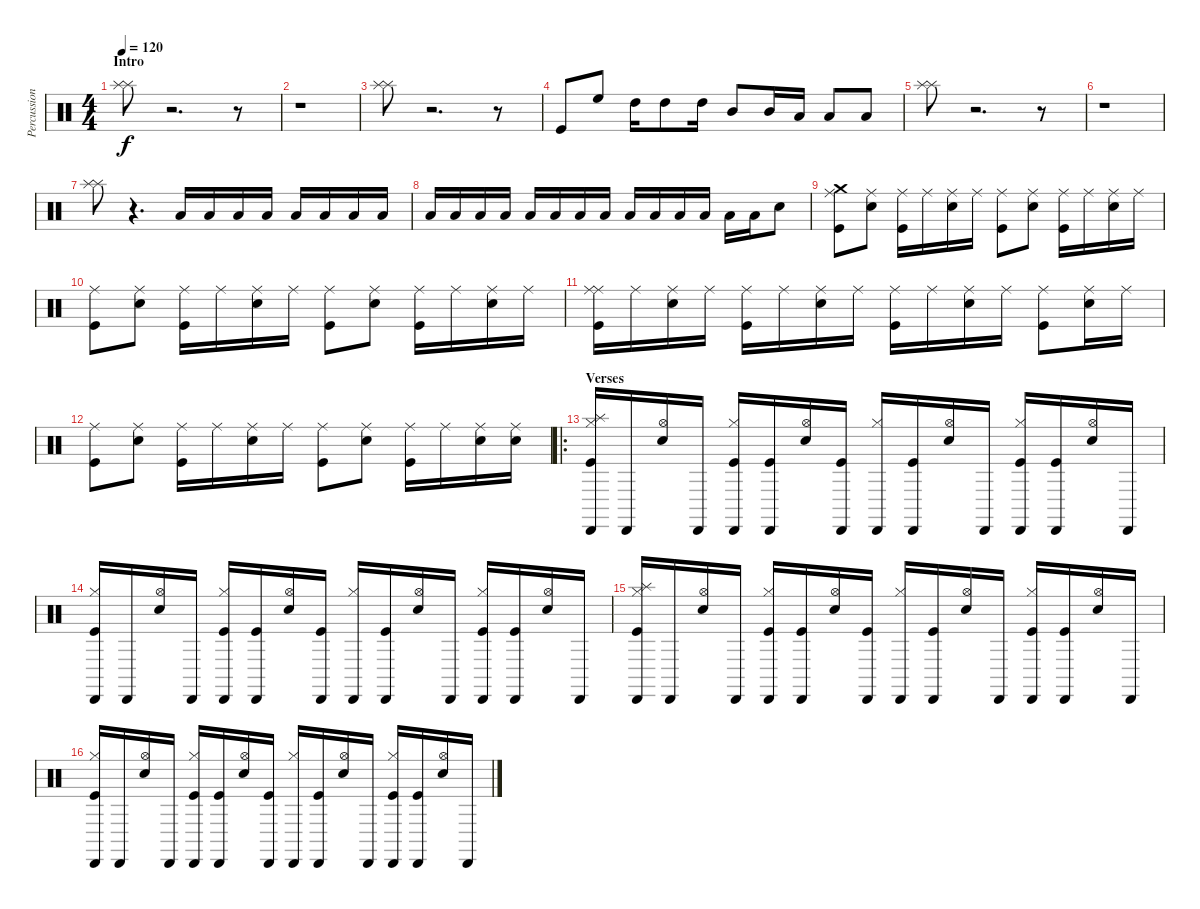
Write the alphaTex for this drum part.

\track ("Percussion" "Percussion") {instrument percussion}
\staff {score}
\articulation defaults
\ts (4 4)
\section ("" "Intro")
\tempo 120
\clef neutral
\ks c
("Splash (hit)" "Splash (hit)").8{dy f} r.2{d} r.8 |
r.1 |
("Splash (hit)" "Splash (hit)").8 r.2{d} r.8 |
"Kick (hit)".8 "High Floor Tom (hit)".8 "High Tom (hit)".16 "High Tom (hit)".8 "High Tom (hit)".16 "Mid Tom (hit)".8 "Mid Tom (hit)".16 "Low Tom (hit)".16 "Low Tom (hit)".8 "Low Tom (hit)".8 |
("Splash (hit)" "Splash (hit)").8 r.2{d} r.8 |
r.1 |
("Splash (hit)" "Splash (hit)").8 r.4{d} "Low Tom (hit)".16{volume 7} "Low Tom (hit)".16 "Low Tom (hit)".16 "Low Tom (hit)".16 "Low Tom (hit)".16 "Low Tom (hit)".16 "Low Tom (hit)".16 "Low Tom (hit)".16{volume 7} |
"Low Tom (hit)".16 "Low Tom (hit)".16{volume 7} "Low Tom (hit)".16 "Low Tom (hit)".16 "Low Tom (hit)".16{volume 8} "Low Tom (hit)".16{volume 9} "Low Tom (hit)".16 "Low Tom (hit)".16{volume 9} "Low Tom (hit)".16 "Low Tom (hit)".16{volume 10} "Low Tom (hit)".16 "Low Tom (hit)".16{volume 11} "Low Tom (hit)".16{volume 12} "Low Tom (hit)".16 "Snare (hit) 2".8{volume 13} |
("Kick (hit)" "Crash medium (hit)" "Ride (middle)").8 ("Snare (hit) 2" "Ride (middle)").8 ("Kick (hit)" "Ride (middle)").16 "Ride (middle)".16 ("Snare (hit) 2" "Ride (middle)").16 "Ride (middle)".16 ("Kick (hit)" "Ride (middle)").8 ("Snare (hit) 2" "Ride (middle)").8 ("Kick (hit)" "Ride (middle)").16 "Ride (middle)".16 ("Snare (hit) 2" "Ride (middle)").16 "Ride (middle)".16 |
("Kick (hit)" "Ride (middle)").8 ("Snare (hit) 2" "Ride (middle)").8 ("Kick (hit)" "Ride (middle)").16 "Ride (middle)".16 ("Snare (hit) 2" "Ride (middle)").16 "Ride (middle)".16 ("Kick (hit)" "Ride (middle)").8 ("Snare (hit) 2" "Ride (middle)").8 ("Kick (hit)" "Ride (middle)").16 "Ride (middle)".16 ("Snare (hit) 2" "Ride (middle)").16 "Ride (middle)".16 |
("Kick (hit)" "Ride (middle)" "Ride (middle)").16 "Ride (middle)".16 ("Snare (hit) 2" "Ride (middle)").16 "Ride (middle)".16 ("Kick (hit)" "Ride (middle)").16 "Ride (middle)".16 ("Snare (hit) 2" "Ride (middle)").16 "Ride (middle)".16 ("Kick (hit)" "Ride (middle)").16 "Ride (middle)".16 ("Snare (hit) 2" "Ride (middle)").16 "Ride (middle)".16 ("Kick (hit)" "Ride (middle)").8 ("Snare (hit) 2" "Ride (middle)").16 "Ride (middle)".16 |
("Kick (hit)" "Ride (middle)").8 ("Snare (hit) 2" "Ride (middle)").8 ("Kick (hit)" "Ride (middle)").16 "Ride (middle)".16 ("Snare (hit) 2" "Ride (middle)").16 "Ride (middle)".16 ("Kick (hit)" "Ride (middle)").8 ("Snare (hit) 2" "Ride (middle)").8 ("Kick (hit)" "Ride (middle)").16 "Ride (middle)".16 ("Snare (hit) 2" "Ride (middle)").16 ("Snare (hit) 2" "Ride (middle)").16 |
\ro
\section ("" "Verses")
("Kick (hit)" "Cabasa (hit)" "Splash (hit)" "Hi-Hat (closed)").16 "Cabasa (hit)".16 ("Hi-Hat (open)" "Snare (hit) 2").16 "Cabasa (hit)".16 ("Kick (hit)" "Cabasa (hit)" "Hi-Hat (closed)").16 ("Kick (hit)" "Cabasa (hit)").16 ("Hi-Hat (open)" "Snare (hit) 2").16 ("Kick (hit)" "Cabasa (hit)").16 ("Cabasa (hit)" "Hi-Hat (closed)").16 ("Kick (hit)" "Cabasa (hit)").16 ("Hi-Hat (open)" "Snare (hit) 2").16 "Cabasa (hit)".16 ("Kick (hit)" "Cabasa (hit)" "Hi-Hat (closed)").16 ("Kick (hit)" "Cabasa (hit)").16 ("Hi-Hat (open)" "Snare (hit) 2").16 "Cabasa (hit)".16 |
("Kick (hit)" "Cabasa (hit)" "Hi-Hat (closed)").16 "Cabasa (hit)".16 ("Hi-Hat (open)" "Snare (hit) 2").16 "Cabasa (hit)".16 ("Kick (hit)" "Cabasa (hit)" "Hi-Hat (closed)").16 ("Kick (hit)" "Cabasa (hit)").16 ("Hi-Hat (open)" "Snare (hit) 2").16 ("Kick (hit)" "Cabasa (hit)").16 ("Cabasa (hit)" "Hi-Hat (closed)").16 ("Kick (hit)" "Cabasa (hit)").16 ("Hi-Hat (open)" "Snare (hit) 2").16 "Cabasa (hit)".16 ("Kick (hit)" "Cabasa (hit)" "Hi-Hat (closed)").16 ("Kick (hit)" "Cabasa (hit)").16 ("Hi-Hat (open)" "Snare (hit) 2").16 "Cabasa (hit)".16 |
("Kick (hit)" "Cabasa (hit)" "Splash (hit)" "Hi-Hat (closed)").16 "Cabasa (hit)".16 ("Hi-Hat (open)" "Snare (hit) 2").16 "Cabasa (hit)".16 ("Kick (hit)" "Cabasa (hit)" "Hi-Hat (closed)").16 ("Kick (hit)" "Cabasa (hit)").16 ("Hi-Hat (open)" "Snare (hit) 2").16 ("Kick (hit)" "Cabasa (hit)").16 ("Cabasa (hit)" "Hi-Hat (closed)").16 ("Kick (hit)" "Cabasa (hit)").16 ("Hi-Hat (open)" "Snare (hit) 2").16 "Cabasa (hit)".16 ("Kick (hit)" "Cabasa (hit)" "Hi-Hat (closed)").16 ("Kick (hit)" "Cabasa (hit)").16 ("Hi-Hat (open)" "Snare (hit) 2").16 "Cabasa (hit)".16 |
("Kick (hit)" "Cabasa (hit)" "Hi-Hat (closed)").16 "Cabasa (hit)".16 ("Hi-Hat (open)" "Snare (hit) 2").16 "Cabasa (hit)".16 ("Kick (hit)" "Cabasa (hit)" "Hi-Hat (closed)").16 ("Kick (hit)" "Cabasa (hit)").16 ("Hi-Hat (open)" "Snare (hit) 2").16 ("Kick (hit)" "Cabasa (hit)").16 ("Cabasa (hit)" "Hi-Hat (closed)").16 ("Kick (hit)" "Cabasa (hit)").16 ("Hi-Hat (open)" "Snare (hit) 2").16 "Cabasa (hit)".16 ("Kick (hit)" "Cabasa (hit)" "Hi-Hat (closed)").16 ("Kick (hit)" "Cabasa (hit)").16 ("Hi-Hat (open)" "Snare (hit) 2").16 "Cabasa (hit)".16
